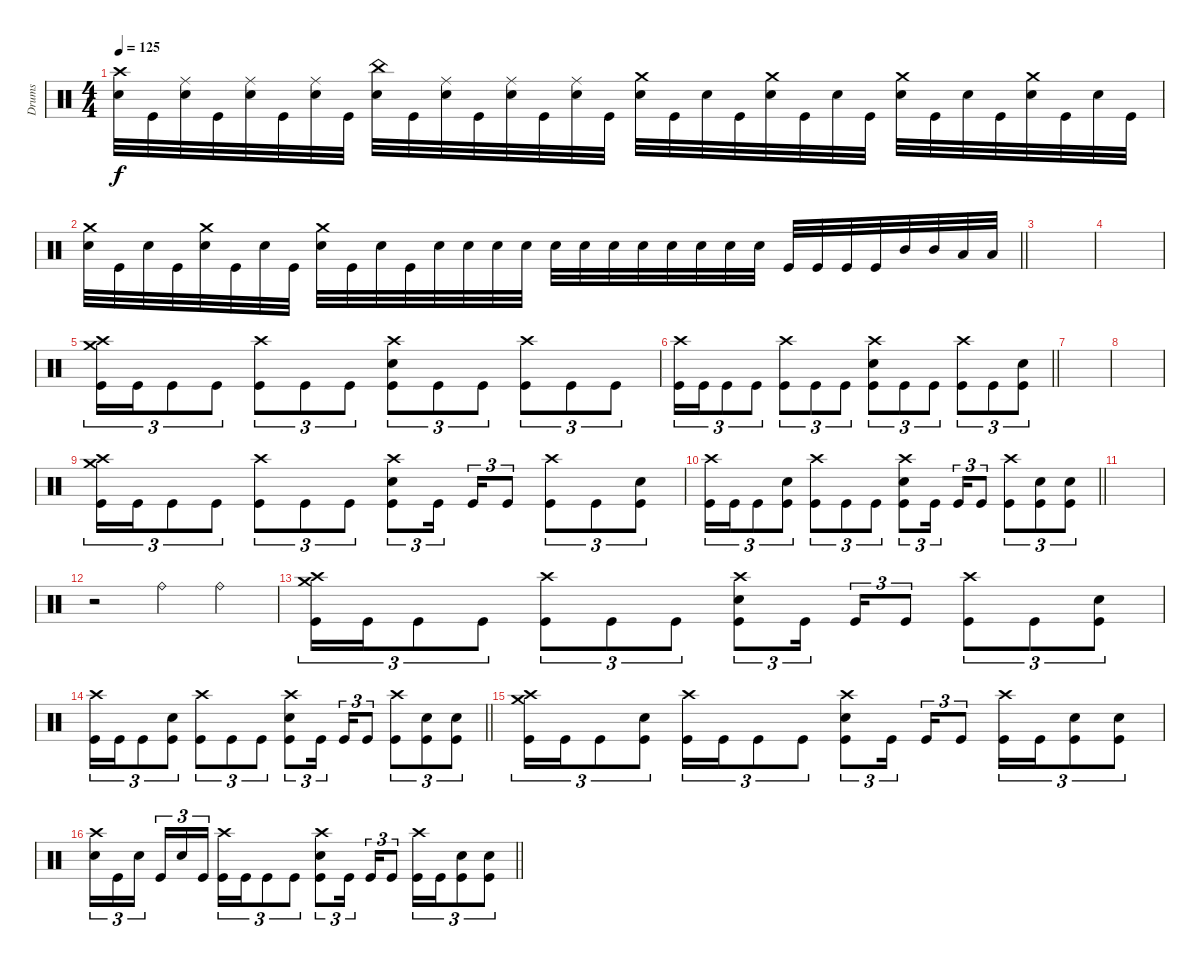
\track ("Drums" "Drums") {instrument percussion}
\staff
\articulation defaults
\ts (4 4)
\tempo 125
\clef neutral
\ks c
("Crash high (hit)" "Electric Snare (hit)").32{dy f} "Kick (hit)".32 ("Ride (middle)" "Electric Snare (hit)").32 "Kick (hit)".32 ("Ride (middle)" "Electric Snare (hit)").32 "Kick (hit)".32 ("Ride (middle)" "Electric Snare (hit)").32 "Kick (hit)".32 ("China (hit)" "Electric Snare (hit)").32 "Kick (hit)".32 ("Ride (middle)" "Electric Snare (hit)").32 "Kick (hit)".32 ("Ride (middle)" "Electric Snare (hit)").32 "Kick (hit)".32 ("Ride (middle)" "Electric Snare (hit)").32 "Kick (hit)".32 ("Crash medium (hit)" "Electric Snare (hit)").32 "Kick (hit)".32 "Electric Snare (hit)".32 "Kick (hit)".32 ("Crash medium (hit)" "Electric Snare (hit)").32 "Kick (hit)".32 "Electric Snare (hit)".32 "Kick (hit)".32 ("Crash medium (hit)" "Electric Snare (hit)").32 "Kick (hit)".32 "Electric Snare (hit)".32 "Kick (hit)".32 ("Crash medium (hit)" "Electric Snare (hit)").32 "Kick (hit)".32 "Electric Snare (hit)".32 "Kick (hit)".32 |
\barLineRight lightlight
("Crash medium (hit)" "Electric Snare (hit)").32 "Kick (hit)".32 "Electric Snare (hit)".32 "Kick (hit)".32 ("Crash medium (hit)" "Electric Snare (hit)").32 "Kick (hit)".32 "Electric Snare (hit)".32 "Kick (hit)".32 ("Crash medium (hit)" "Electric Snare (hit)").32 "Kick (hit)".32 "Electric Snare (hit)".32 "Kick (hit)".32 "Electric Snare (hit)".32 "Electric Snare (hit)".32 "Electric Snare (hit)".32 "Electric Snare (hit)".32 "Electric Snare (hit)".32 "Electric Snare (hit)".32 "Electric Snare (hit)".32 "Electric Snare (hit)".32 "Electric Snare (hit)".32 "Electric Snare (hit)".32 "Electric Snare (hit)".32 "Electric Snare (hit)".32 "Kick (hit)".32 "Kick (hit)".32 "Kick (hit)".32 "Kick (hit)".32 "Mid Tom (hit)".32 "Mid Tom (hit)".32 "Low Tom (hit)".32 "Low Tom (hit)".32 |
\section ("" "")
|
|
("Crash high (hit)" "Crash medium (hit)" "Kick (hit)").16{tu (3 2)} "Kick (hit)".16{tu (3 2)} "Kick (hit)".8{tu (3 2)} "Kick (hit)".8{tu (3 2)} ("Crash high (hit)" "Kick (hit)").8{tu (3 2)} "Kick (hit)".8{tu (3 2)} "Kick (hit)".8{tu (3 2)} ("Crash high (hit)" "Electric Snare (hit)" "Kick (hit)").8{tu (3 2)} "Kick (hit)".8{tu (3 2)} "Kick (hit)".8{tu (3 2)} ("Crash high (hit)" "Kick (hit)").8{tu (3 2)} "Kick (hit)".8{tu (3 2)} "Kick (hit)".8{tu (3 2)} |
\barLineRight lightlight
("Crash high (hit)" "Kick (hit)").16{tu (3 2)} "Kick (hit)".16{tu (3 2)} "Kick (hit)".8{tu (3 2)} "Kick (hit)".8{tu (3 2)} ("Crash high (hit)" "Kick (hit)").8{tu (3 2)} "Kick (hit)".8{tu (3 2)} "Kick (hit)".8{tu (3 2)} ("Crash high (hit)" "Electric Snare (hit)" "Kick (hit)").8{tu (3 2)} "Kick (hit)".8{tu (3 2)} "Kick (hit)".8{tu (3 2)} ("Crash high (hit)" "Kick (hit)").8{tu (3 2)} "Kick (hit)".8{tu (3 2)} ("Electric Snare (hit)" "Kick (hit)").8{tu (3 2)} |
|
|
("Crash high (hit)" "Crash medium (hit)" "Kick (hit)").16{tu (3 2)} "Kick (hit)".16{tu (3 2)} "Kick (hit)".8{tu (3 2)} "Kick (hit)".8{tu (3 2)} ("Crash high (hit)" "Kick (hit)").8{tu (3 2)} "Kick (hit)".8{tu (3 2)} "Kick (hit)".8{tu (3 2)} ("Crash high (hit)" "Electric Snare (hit)" "Kick (hit)").8{tu (3 2)} "Kick (hit)".16{tu (3 2) beam splitsecondary} "Kick (hit)".16{tu (3 2)} "Kick (hit)".8{tu (3 2)} ("Crash high (hit)" "Kick (hit)").8{tu (3 2)} "Kick (hit)".8{tu (3 2)} ("Electric Snare (hit)" "Kick (hit)").8{tu (3 2)} |
\barLineRight lightlight
("Crash high (hit)" "Kick (hit)").16{tu (3 2)} "Kick (hit)".16{tu (3 2)} "Kick (hit)".8{tu (3 2)} ("Electric Snare (hit)" "Kick (hit)").8{tu (3 2)} ("Crash high (hit)" "Kick (hit)").8{tu (3 2)} "Kick (hit)".8{tu (3 2)} "Kick (hit)".8{tu (3 2)} ("Crash high (hit)" "Electric Snare (hit)" "Kick (hit)").8{tu (3 2)} "Kick (hit)".16{tu (3 2) beam splitsecondary} "Kick (hit)".16{tu (3 2)} "Kick (hit)".8{tu (3 2)} ("Crash high (hit)" "Kick (hit)").8{tu (3 2)} ("Electric Snare (hit)" "Kick (hit)").8{tu (3 2)} ("Electric Snare (hit)" "Kick (hit)").8{tu (3 2)} |
|
r.2 "Ride (bell)".4 "Ride (bell)".4 |
("Crash high (hit)" "Crash medium (hit)" "Kick (hit)").16{tu (3 2)} "Kick (hit)".16{tu (3 2)} "Kick (hit)".8{tu (3 2)} "Kick (hit)".8{tu (3 2)} ("Crash high (hit)" "Kick (hit)").8{tu (3 2)} "Kick (hit)".8{tu (3 2)} "Kick (hit)".8{tu (3 2)} ("Crash high (hit)" "Electric Snare (hit)" "Kick (hit)").8{tu (3 2)} "Kick (hit)".16{tu (3 2) beam splitsecondary} "Kick (hit)".16{tu (3 2)} "Kick (hit)".8{tu (3 2)} ("Crash high (hit)" "Kick (hit)").8{tu (3 2)} "Kick (hit)".8{tu (3 2)} ("Electric Snare (hit)" "Kick (hit)").8{tu (3 2)} |
\barLineRight lightlight
("Crash high (hit)" "Kick (hit)").16{tu (3 2)} "Kick (hit)".16{tu (3 2)} "Kick (hit)".8{tu (3 2)} ("Electric Snare (hit)" "Kick (hit)").8{tu (3 2)} ("Crash high (hit)" "Kick (hit)").8{tu (3 2)} "Kick (hit)".8{tu (3 2)} "Kick (hit)".8{tu (3 2)} ("Crash high (hit)" "Electric Snare (hit)" "Kick (hit)").8{tu (3 2)} "Kick (hit)".16{tu (3 2) beam splitsecondary} "Kick (hit)".16{tu (3 2)} "Kick (hit)".8{tu (3 2)} ("Crash high (hit)" "Kick (hit)").8{tu (3 2)} ("Electric Snare (hit)" "Kick (hit)").8{tu (3 2)} ("Electric Snare (hit)" "Kick (hit)").8{tu (3 2)} |
("Crash high (hit)" "Crash medium (hit)" "Kick (hit)").16{tu (3 2)} "Kick (hit)".16{tu (3 2)} "Kick (hit)".8{tu (3 2)} ("Electric Snare (hit)" "Kick (hit)").8{tu (3 2)} ("Crash high (hit)" "Kick (hit)").16{tu (3 2)} "Kick (hit)".16{tu (3 2)} "Kick (hit)".8{tu (3 2)} "Kick (hit)".8{tu (3 2)} ("Crash high (hit)" "Electric Snare (hit)" "Kick (hit)").8{tu (3 2)} "Kick (hit)".16{tu (3 2) beam splitsecondary} "Kick (hit)".16{tu (3 2)} "Kick (hit)".8{tu (3 2)} ("Crash high (hit)" "Kick (hit)").16{tu (3 2)} "Kick (hit)".16{tu (3 2)} ("Electric Snare (hit)" "Kick (hit)").8{tu (3 2)} ("Electric Snare (hit)" "Kick (hit)").8{tu (3 2)} |
\barLineRight lightlight
("Crash high (hit)" "Electric Snare (hit)").16{tu (3 2)} "Kick (hit)".16{tu (3 2)} "Electric Snare (hit)".16{tu (3 2) beam splitsecondary} "Kick (hit)".16{tu (3 2)} "Electric Snare (hit)".16{tu (3 2)} "Kick (hit)".16{tu (3 2)} ("Crash high (hit)" "Kick (hit)").16{tu (3 2)} "Kick (hit)".16{tu (3 2)} "Kick (hit)".8{tu (3 2)} "Kick (hit)".8{tu (3 2)} ("Crash high (hit)" "Electric Snare (hit)" "Kick (hit)").8{tu (3 2)} "Kick (hit)".16{tu (3 2) beam splitsecondary} "Kick (hit)".16{tu (3 2)} "Kick (hit)".8{tu (3 2)} ("Crash high (hit)" "Kick (hit)").16{tu (3 2)} "Kick (hit)".16{tu (3 2)} ("Electric Snare (hit)" "Kick (hit)").8{tu (3 2)} ("Electric Snare (hit)" "Kick (hit)").8{tu (3 2)}
